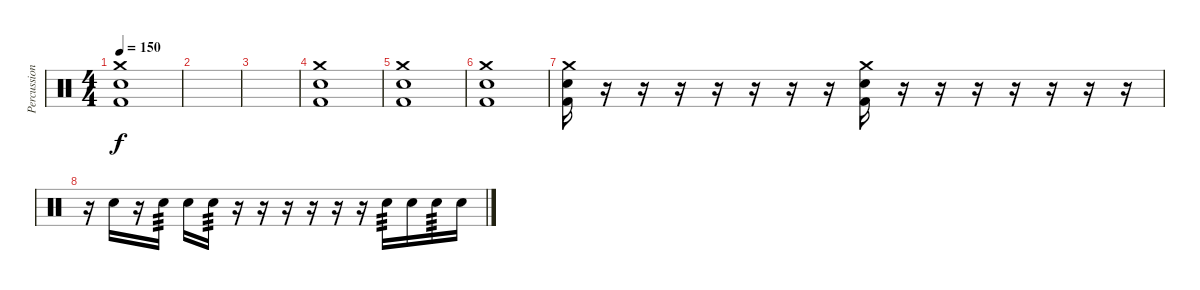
\track ("Percussions" "Percussion") {instrument percussion}
\staff {score}
\articulation defaults
\ts (4 4)
\tempo 150
\clef neutral
\ks c
("Crash medium (hit)" "Kick (hit) 2" "Snare (hit) 2").1{dy f} |
|
|
("Crash medium (hit)" "Kick (hit) 2" "Snare (hit) 2").1 |
("Crash medium (hit)" "Snare (hit) 2" "Kick (hit) 2").1 |
("Crash medium (hit)" "Snare (hit) 2" "Kick (hit) 2").1 |
("Crash medium (hit)" "Snare (hit) 2" "Kick (hit) 2").16 r.16 r.16 r.16 r.16 r.16 r.16 r.16 ("Crash medium (hit)" "Snare (hit) 2" "Kick (hit) 2").16 r.16 r.16 r.16 r.16 r.16 r.16 r.16 |
r.16 "Snare (hit) 2".16 r.16 "Snare (hit) 2".16{tp 3} "Snare (hit) 2".16 "Snare (hit) 2".16{tp 3} r.16 r.16 r.16 r.16 r.16 r.16 "Snare (hit) 2".16{tp 3} "Snare (hit) 2".16 "Snare (hit) 2".16{tp 3} "Snare (hit) 2".16
